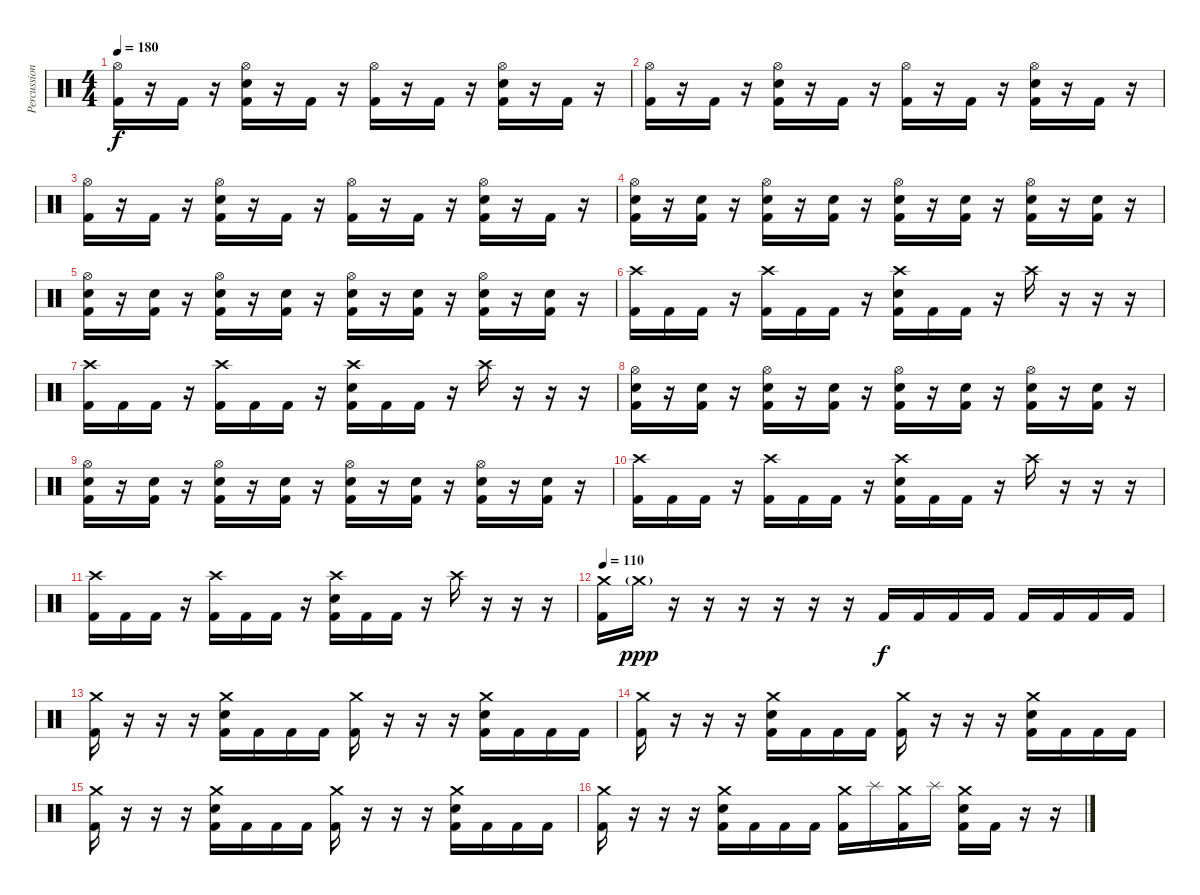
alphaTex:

\track ("Percussion" "Percussion") {instrument percussion}
\staff {score}
\articulation defaults
\ts (4 4)
\tempo 180
\clef neutral
\ks c
("Hi-Hat (open)" "Kick (hit) 2").16{dy f} r.16 "Kick (hit) 2".16 r.16 ("Hi-Hat (open)" "Electric Snare (hit)" "Kick (hit) 2").16 r.16 "Kick (hit) 2".16 r.16 ("Hi-Hat (open)" "Kick (hit) 2").16 r.16 "Kick (hit) 2".16 r.16 ("Hi-Hat (open)" "Electric Snare (hit)" "Kick (hit) 2").16 r.16 "Kick (hit) 2".16 r.16 |
("Hi-Hat (open)" "Kick (hit) 2").16 r.16 "Kick (hit) 2".16 r.16 ("Hi-Hat (open)" "Electric Snare (hit)" "Kick (hit) 2").16 r.16 "Kick (hit) 2".16 r.16 ("Hi-Hat (open)" "Kick (hit) 2").16 r.16 "Kick (hit) 2".16 r.16 ("Hi-Hat (open)" "Electric Snare (hit)" "Kick (hit) 2").16 r.16 "Kick (hit) 2".16 r.16 |
("Hi-Hat (open)" "Kick (hit) 2").16 r.16 "Kick (hit) 2".16 r.16 ("Hi-Hat (open)" "Electric Snare (hit)" "Kick (hit) 2").16 r.16 "Kick (hit) 2".16 r.16 ("Hi-Hat (open)" "Kick (hit) 2").16 r.16 "Kick (hit) 2".16 r.16 ("Hi-Hat (open)" "Electric Snare (hit)" "Kick (hit) 2").16 r.16 "Kick (hit) 2".16 r.16 |
("Hi-Hat (open)" "Electric Snare (hit)" "Kick (hit) 2").16 r.16 ("Electric Snare (hit)" "Kick (hit) 2").16 r.16 ("Hi-Hat (open)" "Electric Snare (hit)" "Kick (hit) 2").16 r.16 ("Electric Snare (hit)" "Kick (hit) 2").16 r.16 ("Hi-Hat (open)" "Electric Snare (hit)" "Kick (hit) 2").16 r.16 ("Electric Snare (hit)" "Kick (hit) 2").16 r.16 ("Hi-Hat (open)" "Electric Snare (hit)" "Kick (hit) 2").16 r.16 ("Electric Snare (hit)" "Kick (hit) 2").16 r.16 |
("Hi-Hat (open)" "Electric Snare (hit)" "Kick (hit) 2").16 r.16 ("Electric Snare (hit)" "Kick (hit) 2").16 r.16 ("Hi-Hat (open)" "Electric Snare (hit)" "Kick (hit) 2").16 r.16 ("Electric Snare (hit)" "Kick (hit) 2").16 r.16 ("Hi-Hat (open)" "Electric Snare (hit)" "Kick (hit) 2").16 r.16 ("Electric Snare (hit)" "Kick (hit) 2").16 r.16 ("Hi-Hat (open)" "Electric Snare (hit)" "Kick (hit) 2").16 r.16 ("Electric Snare (hit)" "Kick (hit) 2").16 r.16 |
("Crash high (hit)" "Kick (hit) 2").16 "Kick (hit) 2".16 "Kick (hit) 2".16 r.16 ("Crash high (hit)" "Kick (hit) 2").16 "Kick (hit) 2".16 "Kick (hit) 2".16 r.16 ("Crash high (hit)" "Electric Snare (hit)" "Kick (hit) 2").16 "Kick (hit) 2".16 "Kick (hit) 2".16 r.16 "Crash high (hit)".16 r.16 r.16 r.16 |
("Crash high (hit)" "Kick (hit) 2").16 "Kick (hit) 2".16 "Kick (hit) 2".16 r.16 ("Crash high (hit)" "Kick (hit) 2").16 "Kick (hit) 2".16 "Kick (hit) 2".16 r.16 ("Crash high (hit)" "Electric Snare (hit)" "Kick (hit) 2").16 "Kick (hit) 2".16 "Kick (hit) 2".16 r.16 "Crash high (hit)".16 r.16 r.16 r.16 |
("Hi-Hat (open)" "Electric Snare (hit)" "Kick (hit) 2").16 r.16 ("Electric Snare (hit)" "Kick (hit) 2").16 r.16 ("Hi-Hat (open)" "Electric Snare (hit)" "Kick (hit) 2").16 r.16 ("Electric Snare (hit)" "Kick (hit) 2").16 r.16 ("Hi-Hat (open)" "Electric Snare (hit)" "Kick (hit) 2").16 r.16 ("Electric Snare (hit)" "Kick (hit) 2").16 r.16 ("Hi-Hat (open)" "Electric Snare (hit)" "Kick (hit) 2").16 r.16 ("Electric Snare (hit)" "Kick (hit) 2").16 r.16 |
("Hi-Hat (open)" "Electric Snare (hit)" "Kick (hit) 2").16 r.16 ("Electric Snare (hit)" "Kick (hit) 2").16 r.16 ("Hi-Hat (open)" "Electric Snare (hit)" "Kick (hit) 2").16 r.16 ("Electric Snare (hit)" "Kick (hit) 2").16 r.16 ("Hi-Hat (open)" "Electric Snare (hit)" "Kick (hit) 2").16 r.16 ("Electric Snare (hit)" "Kick (hit) 2").16 r.16 ("Hi-Hat (open)" "Electric Snare (hit)" "Kick (hit) 2").16 r.16 ("Electric Snare (hit)" "Kick (hit) 2").16 r.16 |
("Crash high (hit)" "Kick (hit) 2").16 "Kick (hit) 2".16 "Kick (hit) 2".16 r.16 ("Crash high (hit)" "Kick (hit) 2").16 "Kick (hit) 2".16 "Kick (hit) 2".16 r.16 ("Crash high (hit)" "Electric Snare (hit)" "Kick (hit) 2").16 "Kick (hit) 2".16 "Kick (hit) 2".16 r.16 "Crash high (hit)".16 r.16 r.16 r.16 |
("Crash high (hit)" "Kick (hit) 2").16 "Kick (hit) 2".16 "Kick (hit) 2".16 r.16 ("Crash high (hit)" "Kick (hit) 2").16 "Kick (hit) 2".16 "Kick (hit) 2".16 r.16 ("Crash high (hit)" "Electric Snare (hit)" "Kick (hit) 2").16 "Kick (hit) 2".16 "Kick (hit) 2".16 r.16 "Crash high (hit)".16 r.16 r.16 r.16 |
\tempo 110
("Crash medium (hit)" "Kick (hit) 2").16 "Crash medium (hit)"{g}.16{dy ppp} r.16 r.16 r.16 r.16 r.16 r.16 "Kick (hit) 2".16{dy f} "Kick (hit) 2".16 "Kick (hit) 2".16 "Kick (hit) 2".16 "Kick (hit) 2".16 "Kick (hit) 2".16 "Kick (hit) 2".16 "Kick (hit) 2".16 |
("Crash medium (hit)" "Kick (hit) 2").16 r.16 r.16 r.16 ("Crash medium (hit)" "Electric Snare (hit)" "Kick (hit) 2").16 "Kick (hit) 2".16 "Kick (hit) 2".16 "Kick (hit) 2".16 ("Crash medium (hit)" "Kick (hit) 2").16 r.16 r.16 r.16 ("Crash medium (hit)" "Electric Snare (hit)" "Kick (hit) 2").16 "Kick (hit) 2".16 "Kick (hit) 2".16 "Kick (hit) 2".16 |
("Crash medium (hit)" "Kick (hit) 2").16 r.16 r.16 r.16 ("Crash medium (hit)" "Electric Snare (hit)" "Kick (hit) 2").16 "Kick (hit) 2".16 "Kick (hit) 2".16 "Kick (hit) 2".16 ("Crash medium (hit)" "Kick (hit) 2").16 r.16 r.16 r.16 ("Crash medium (hit)" "Electric Snare (hit)" "Kick (hit) 2").16 "Kick (hit) 2".16 "Kick (hit) 2".16 "Kick (hit) 2".16 |
("Crash medium (hit)" "Kick (hit) 2").16 r.16 r.16 r.16 ("Crash medium (hit)" "Electric Snare (hit)" "Kick (hit) 2").16 "Kick (hit) 2".16 "Kick (hit) 2".16 "Kick (hit) 2".16 ("Crash medium (hit)" "Kick (hit) 2").16 r.16 r.16 r.16 ("Crash medium (hit)" "Electric Snare (hit)" "Kick (hit) 2").16 "Kick (hit) 2".16 "Kick (hit) 2".16 "Kick (hit) 2".16 |
("Crash medium (hit)" "Kick (hit) 2").16 r.16 r.16 r.16 ("Crash medium (hit)" "Electric Snare (hit)" "Kick (hit) 2").16 "Kick (hit) 2".16 "Kick (hit) 2".16 "Kick (hit) 2".16 ("Crash medium (hit)" "Kick (hit) 2").16 "Splash (hit)".16 ("Crash medium (hit)" "Kick (hit) 2").16 "Splash (hit)".16 ("Crash medium (hit)" "Electric Snare (hit)" "Kick (hit) 2").16 "Kick (hit) 2".16 r.16 r.16
